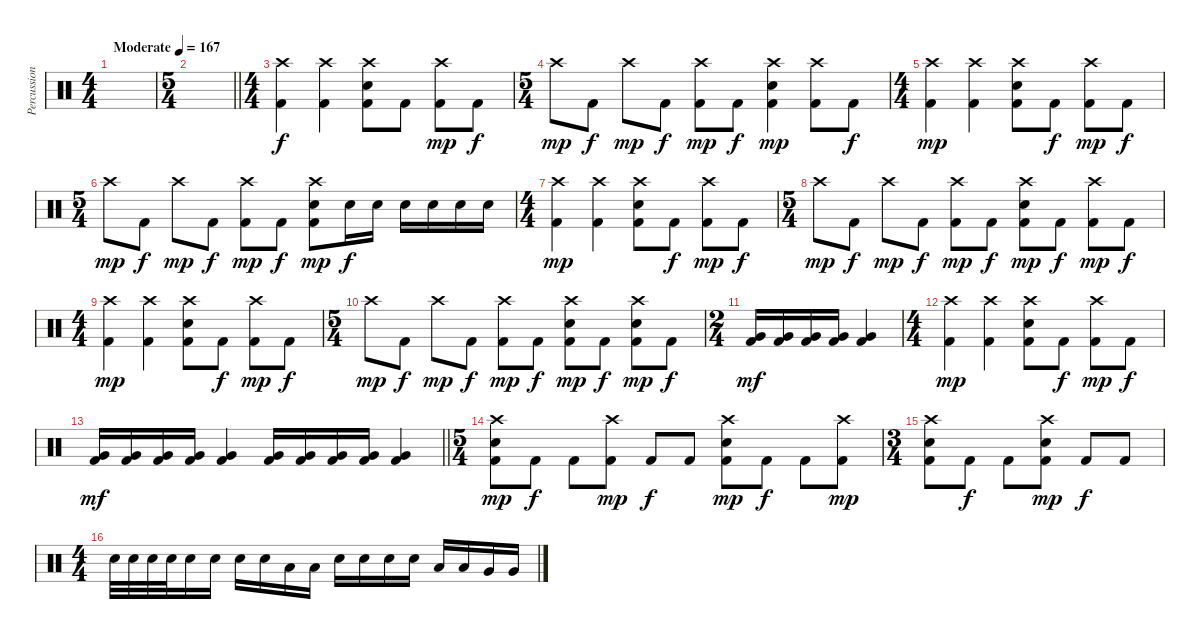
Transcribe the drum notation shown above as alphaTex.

\track ("Percussion" "Percussion") {instrument percussion}
\staff {score}
\articulation defaults
\ts (4 4)
\tempo (167 "Moderate")
\clef neutral
\ks c
|
\ts (5 4)
\barLineRight lightlight
|
\ts (4 4)
("Crash high (hit)" "Kick (hit) 2").4 ("Crash high (hit)" "Kick (hit) 2").4 ("Crash high (hit)" "Snare (hit) 2" "Kick (hit) 2").8 "Kick (hit) 2".8{dy f} ("Crash high (hit)" "Kick (hit) 2").8{dy mp} "Kick (hit) 2".8{dy f} |
\ts (5 4)
"Crash high (hit)".8{dy mp} "Kick (hit) 2".8{dy f} "Crash high (hit)".8{dy mp} "Kick (hit) 2".8{dy f} ("Crash high (hit)" "Kick (hit) 2").8{dy mp} "Kick (hit) 2".8{dy f} ("Crash high (hit)" "Snare (hit) 2" "Kick (hit) 2").4{dy mp} ("Crash high (hit)" "Kick (hit) 2").8 "Kick (hit) 2".8{dy f} |
\ts (4 4)
("Crash high (hit)" "Kick (hit) 2").4{dy mp} ("Crash high (hit)" "Kick (hit) 2").4 ("Crash high (hit)" "Snare (hit) 2" "Kick (hit) 2").8 "Kick (hit) 2".8{dy f} ("Crash high (hit)" "Kick (hit) 2").8{dy mp} "Kick (hit) 2".8{dy f} |
\ts (5 4)
"Crash high (hit)".8{dy mp} "Kick (hit) 2".8{dy f} "Crash high (hit)".8{dy mp} "Kick (hit) 2".8{dy f} ("Crash high (hit)" "Kick (hit) 2").8{dy mp} "Kick (hit) 2".8{dy f} ("Crash high (hit)" "Snare (hit) 2" "Kick (hit) 2").8{dy mp} "Snare (hit) 2".16{dy f} "Snare (hit) 2".16 "Snare (hit) 2".16 "Snare (hit) 2".16 "Snare (hit) 2".16 "Snare (hit) 2".16 |
\ts (4 4)
("Crash high (hit)" "Kick (hit) 2").4{dy mp} ("Crash high (hit)" "Kick (hit) 2").4 ("Crash high (hit)" "Snare (hit) 2" "Kick (hit) 2").8 "Kick (hit) 2".8{dy f} ("Crash high (hit)" "Kick (hit) 2").8{dy mp} "Kick (hit) 2".8{dy f} |
\ts (5 4)
"Crash high (hit)".8{dy mp} "Kick (hit) 2".8{dy f} "Crash high (hit)".8{dy mp} "Kick (hit) 2".8{dy f} ("Crash high (hit)" "Kick (hit) 2").8{dy mp} "Kick (hit) 2".8{dy f} ("Crash high (hit)" "Snare (hit) 2" "Kick (hit) 2").8{dy mp} "Kick (hit) 2".8{dy f} ("Crash high (hit)" "Kick (hit) 2").8{dy mp} "Kick (hit) 2".8{dy f} |
\ts (4 4)
("Crash high (hit)" "Kick (hit) 2").4{dy mp} ("Crash high (hit)" "Kick (hit) 2").4 ("Crash high (hit)" "Snare (hit) 2" "Kick (hit) 2").8 "Kick (hit) 2".8{dy f} ("Crash high (hit)" "Kick (hit) 2").8{dy mp} "Kick (hit) 2".8{dy f} |
\ts (5 4)
"Crash high (hit)".8{dy mp} "Kick (hit) 2".8{dy f} "Crash high (hit)".8{dy mp} "Kick (hit) 2".8{dy f} ("Crash high (hit)" "Kick (hit) 2").8{dy mp} "Kick (hit) 2".8{dy f} ("Crash high (hit)" "Snare (hit) 2" "Kick (hit) 2").8{dy mp} "Kick (hit) 2".8{dy f} ("Crash high (hit)" "Snare (hit) 2" "Kick (hit) 2").8{dy mp} "Kick (hit) 2".8{dy f} |
\ts (2 4)
("Very Low Tom (hit)" "Kick (hit) 2").16{dy mf} ("Very Low Tom (hit)" "Kick (hit) 2").16 ("Very Low Tom (hit)" "Kick (hit) 2").16 ("Very Low Tom (hit)" "Kick (hit) 2").16 ("Very Low Tom (hit)" "Kick (hit) 2").4 |
\ts (4 4)
("Crash high (hit)" "Kick (hit) 2").4{dy mp} ("Crash high (hit)" "Kick (hit) 2").4 ("Crash high (hit)" "Snare (hit) 2" "Kick (hit) 2").8 "Kick (hit) 2".8{dy f} ("Crash high (hit)" "Kick (hit) 2").8{dy mp} "Kick (hit) 2".8{dy f} |
\barLineRight lightlight
("Very Low Tom (hit)" "Kick (hit) 2").16{dy mf} ("Very Low Tom (hit)" "Kick (hit) 2").16 ("Very Low Tom (hit)" "Kick (hit) 2").16 ("Very Low Tom (hit)" "Kick (hit) 2").16 ("Very Low Tom (hit)" "Kick (hit) 2").4 ("Very Low Tom (hit)" "Kick (hit) 2").16 ("Very Low Tom (hit)" "Kick (hit) 2").16 ("Very Low Tom (hit)" "Kick (hit) 2").16 ("Very Low Tom (hit)" "Kick (hit) 2").16 ("Very Low Tom (hit)" "Kick (hit) 2").4 |
\ts (5 4)
("Crash high (hit)" "Snare (hit) 2" "Kick (hit) 2").8{dy mp} "Kick (hit) 2".8{dy f} "Kick (hit) 2".8 ("Crash high (hit)" "Kick (hit) 2").8{dy mp} "Kick (hit) 2".8{dy f} "Kick (hit) 2".8 ("Crash high (hit)" "Snare (hit) 2" "Kick (hit) 2").8{dy mp} "Kick (hit) 2".8{dy f} "Kick (hit) 2".8 ("Crash high (hit)" "Kick (hit) 2").8{dy mp} |
\ts (3 4)
("Crash high (hit)" "Snare (hit) 2" "Kick (hit) 2").8 "Kick (hit) 2".8{dy f} "Kick (hit) 2".8 ("Crash high (hit)" "Snare (hit) 2" "Kick (hit) 2").8{dy mp} "Kick (hit) 2".8{dy f} "Kick (hit) 2".8 |
\ts (4 4)
"Electric Snare (hit)".32 "Electric Snare (hit)".32 "Electric Snare (hit)".32 "Electric Snare (hit)".32 "Electric Snare (hit)".16 "Electric Snare (hit)".16 "Electric Snare (hit)".16 "Electric Snare (hit)".16 "Low Tom (hit)".16 "Low Tom (hit)".16 "Electric Snare (hit)".16 "Electric Snare (hit)".16 "Electric Snare (hit)".16 "Electric Snare (hit)".16 "Low Tom (hit)".16 "Low Tom (hit)".16 "Very Low Tom (hit)".16 "Very Low Tom (hit)".16
